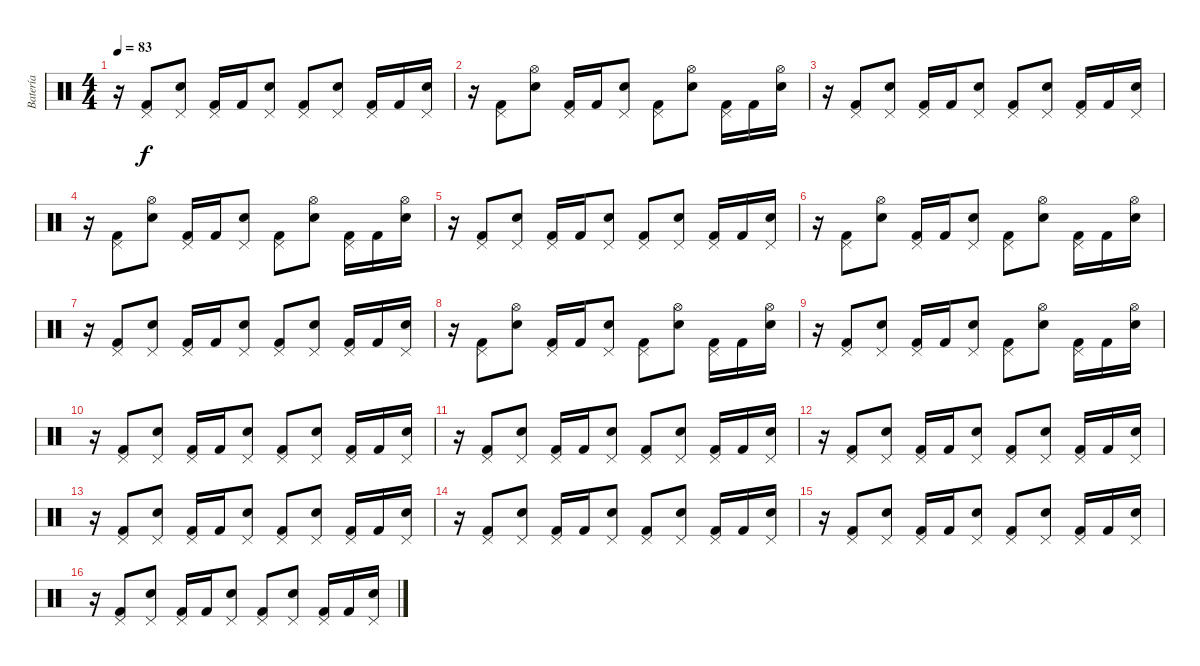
\track ("Batería" "Batería") {instrument percussion}
\staff {score}
\articulation defaults
\ts (4 4)
\tempo 83
\clef neutral
\ks c
r.16{dy f volume 13} ("Pedal Hi-Hat (hit)" "Kick (hit) 2").8 ("Electric Snare (hit)" "Pedal Hi-Hat (hit)").8 ("Pedal Hi-Hat (hit)" "Kick (hit) 2").16 "Kick (hit) 2".16 ("Electric Snare (hit)" "Pedal Hi-Hat (hit)").8 ("Pedal Hi-Hat (hit)" "Kick (hit) 2").8 ("Electric Snare (hit)" "Pedal Hi-Hat (hit)").8 ("Pedal Hi-Hat (hit)" "Kick (hit) 2").16 "Kick (hit) 2".16 ("Electric Snare (hit)" "Pedal Hi-Hat (hit)").16 |
r.16{volume 13} ("Pedal Hi-Hat (hit)" "Kick (hit) 2").8 ("Electric Snare (hit)" "Hi-Hat (open)").8 ("Pedal Hi-Hat (hit)" "Kick (hit) 2").16 "Kick (hit) 2".16 ("Electric Snare (hit)" "Pedal Hi-Hat (hit)").8 ("Pedal Hi-Hat (hit)" "Kick (hit) 2").8 ("Electric Snare (hit)" "Hi-Hat (open)").8 ("Pedal Hi-Hat (hit)" "Kick (hit) 2").16 "Kick (hit) 2".16 ("Electric Snare (hit)" "Hi-Hat (open)").16 |
r.16{volume 13} ("Pedal Hi-Hat (hit)" "Kick (hit) 2").8 ("Electric Snare (hit)" "Pedal Hi-Hat (hit)").8 ("Pedal Hi-Hat (hit)" "Kick (hit) 2").16 "Kick (hit) 2".16 ("Electric Snare (hit)" "Pedal Hi-Hat (hit)").8 ("Pedal Hi-Hat (hit)" "Kick (hit) 2").8 ("Electric Snare (hit)" "Pedal Hi-Hat (hit)").8 ("Pedal Hi-Hat (hit)" "Kick (hit) 2").16 "Kick (hit) 2".16 ("Electric Snare (hit)" "Pedal Hi-Hat (hit)").16 |
r.16{volume 13} ("Pedal Hi-Hat (hit)" "Kick (hit) 2").8 ("Electric Snare (hit)" "Hi-Hat (open)").8 ("Pedal Hi-Hat (hit)" "Kick (hit) 2").16 "Kick (hit) 2".16 ("Electric Snare (hit)" "Pedal Hi-Hat (hit)").8 ("Pedal Hi-Hat (hit)" "Kick (hit) 2").8 ("Electric Snare (hit)" "Hi-Hat (open)").8 ("Pedal Hi-Hat (hit)" "Kick (hit) 2").16 "Kick (hit) 2".16 ("Electric Snare (hit)" "Hi-Hat (open)").16 |
r.16{volume 13} ("Pedal Hi-Hat (hit)" "Kick (hit) 2").8 ("Electric Snare (hit)" "Pedal Hi-Hat (hit)").8 ("Pedal Hi-Hat (hit)" "Kick (hit) 2").16 "Kick (hit) 2".16 ("Electric Snare (hit)" "Pedal Hi-Hat (hit)").8 ("Pedal Hi-Hat (hit)" "Kick (hit) 2").8 ("Electric Snare (hit)" "Pedal Hi-Hat (hit)").8 ("Pedal Hi-Hat (hit)" "Kick (hit) 2").16 "Kick (hit) 2".16 ("Electric Snare (hit)" "Pedal Hi-Hat (hit)").16 |
r.16{volume 13} ("Pedal Hi-Hat (hit)" "Kick (hit) 2").8 ("Electric Snare (hit)" "Hi-Hat (open)").8 ("Pedal Hi-Hat (hit)" "Kick (hit) 2").16 "Kick (hit) 2".16 ("Electric Snare (hit)" "Pedal Hi-Hat (hit)").8 ("Pedal Hi-Hat (hit)" "Kick (hit) 2").8 ("Electric Snare (hit)" "Hi-Hat (open)").8 ("Pedal Hi-Hat (hit)" "Kick (hit) 2").16 "Kick (hit) 2".16 ("Electric Snare (hit)" "Hi-Hat (open)").16 |
r.16{volume 13} ("Pedal Hi-Hat (hit)" "Kick (hit) 2").8 ("Electric Snare (hit)" "Pedal Hi-Hat (hit)").8 ("Pedal Hi-Hat (hit)" "Kick (hit) 2").16 "Kick (hit) 2".16 ("Electric Snare (hit)" "Pedal Hi-Hat (hit)").8 ("Pedal Hi-Hat (hit)" "Kick (hit) 2").8 ("Electric Snare (hit)" "Pedal Hi-Hat (hit)").8 ("Pedal Hi-Hat (hit)" "Kick (hit) 2").16 "Kick (hit) 2".16 ("Electric Snare (hit)" "Pedal Hi-Hat (hit)").16 |
r.16{volume 13} ("Pedal Hi-Hat (hit)" "Kick (hit) 2").8 ("Electric Snare (hit)" "Hi-Hat (open)").8 ("Pedal Hi-Hat (hit)" "Kick (hit) 2").16 "Kick (hit) 2".16 ("Electric Snare (hit)" "Pedal Hi-Hat (hit)").8 ("Pedal Hi-Hat (hit)" "Kick (hit) 2").8 ("Electric Snare (hit)" "Hi-Hat (open)").8 ("Pedal Hi-Hat (hit)" "Kick (hit) 2").16 "Kick (hit) 2".16 ("Electric Snare (hit)" "Hi-Hat (open)").16 |
r.16{volume 13} ("Pedal Hi-Hat (hit)" "Kick (hit) 2").8 ("Electric Snare (hit)" "Pedal Hi-Hat (hit)").8 ("Pedal Hi-Hat (hit)" "Kick (hit) 2").16 "Kick (hit) 2".16 ("Electric Snare (hit)" "Pedal Hi-Hat (hit)").8 ("Pedal Hi-Hat (hit)" "Kick (hit) 2").8 ("Electric Snare (hit)" "Hi-Hat (open)").8 ("Pedal Hi-Hat (hit)" "Kick (hit) 2").16 "Kick (hit) 2".16 ("Electric Snare (hit)" "Hi-Hat (open)").16 |
r.16{volume 13} ("Pedal Hi-Hat (hit)" "Kick (hit) 2").8 ("Electric Snare (hit)" "Pedal Hi-Hat (hit)").8 ("Pedal Hi-Hat (hit)" "Kick (hit) 2").16 "Kick (hit) 2".16 ("Electric Snare (hit)" "Pedal Hi-Hat (hit)").8 ("Pedal Hi-Hat (hit)" "Kick (hit) 2").8 ("Electric Snare (hit)" "Pedal Hi-Hat (hit)").8 ("Pedal Hi-Hat (hit)" "Kick (hit) 2").16 "Kick (hit) 2".16 ("Electric Snare (hit)" "Pedal Hi-Hat (hit)").16 |
r.16{volume 13} ("Pedal Hi-Hat (hit)" "Kick (hit) 2").8 ("Electric Snare (hit)" "Pedal Hi-Hat (hit)").8 ("Pedal Hi-Hat (hit)" "Kick (hit) 2").16 "Kick (hit) 2".16 ("Electric Snare (hit)" "Pedal Hi-Hat (hit)").8 ("Pedal Hi-Hat (hit)" "Kick (hit) 2").8 ("Electric Snare (hit)" "Pedal Hi-Hat (hit)").8 ("Pedal Hi-Hat (hit)" "Kick (hit) 2").16 "Kick (hit) 2".16 ("Electric Snare (hit)" "Pedal Hi-Hat (hit)").16 |
r.16{volume 13} ("Pedal Hi-Hat (hit)" "Kick (hit) 2").8 ("Electric Snare (hit)" "Pedal Hi-Hat (hit)").8 ("Pedal Hi-Hat (hit)" "Kick (hit) 2").16 "Kick (hit) 2".16 ("Electric Snare (hit)" "Pedal Hi-Hat (hit)").8 ("Pedal Hi-Hat (hit)" "Kick (hit) 2").8 ("Electric Snare (hit)" "Pedal Hi-Hat (hit)").8 ("Pedal Hi-Hat (hit)" "Kick (hit) 2").16 "Kick (hit) 2".16 ("Electric Snare (hit)" "Pedal Hi-Hat (hit)").16 |
r.16{volume 13} ("Pedal Hi-Hat (hit)" "Kick (hit) 2").8 ("Electric Snare (hit)" "Pedal Hi-Hat (hit)").8 ("Pedal Hi-Hat (hit)" "Kick (hit) 2").16 "Kick (hit) 2".16 ("Electric Snare (hit)" "Pedal Hi-Hat (hit)").8 ("Pedal Hi-Hat (hit)" "Kick (hit) 2").8 ("Electric Snare (hit)" "Pedal Hi-Hat (hit)").8 ("Pedal Hi-Hat (hit)" "Kick (hit) 2").16 "Kick (hit) 2".16 ("Electric Snare (hit)" "Pedal Hi-Hat (hit)").16 |
r.16{volume 13} ("Pedal Hi-Hat (hit)" "Kick (hit) 2").8 ("Electric Snare (hit)" "Pedal Hi-Hat (hit)").8 ("Pedal Hi-Hat (hit)" "Kick (hit) 2").16 "Kick (hit) 2".16 ("Electric Snare (hit)" "Pedal Hi-Hat (hit)").8 ("Pedal Hi-Hat (hit)" "Kick (hit) 2").8 ("Electric Snare (hit)" "Pedal Hi-Hat (hit)").8 ("Pedal Hi-Hat (hit)" "Kick (hit) 2").16 "Kick (hit) 2".16 ("Electric Snare (hit)" "Pedal Hi-Hat (hit)").16 |
r.16{volume 13} ("Pedal Hi-Hat (hit)" "Kick (hit) 2").8 ("Electric Snare (hit)" "Pedal Hi-Hat (hit)").8 ("Pedal Hi-Hat (hit)" "Kick (hit) 2").16 "Kick (hit) 2".16 ("Electric Snare (hit)" "Pedal Hi-Hat (hit)").8 ("Pedal Hi-Hat (hit)" "Kick (hit) 2").8 ("Electric Snare (hit)" "Pedal Hi-Hat (hit)").8 ("Pedal Hi-Hat (hit)" "Kick (hit) 2").16 "Kick (hit) 2".16 ("Electric Snare (hit)" "Pedal Hi-Hat (hit)").16 |
r.16{volume 13} ("Pedal Hi-Hat (hit)" "Kick (hit) 2").8 ("Electric Snare (hit)" "Pedal Hi-Hat (hit)").8 ("Pedal Hi-Hat (hit)" "Kick (hit) 2").16 "Kick (hit) 2".16 ("Electric Snare (hit)" "Pedal Hi-Hat (hit)").8 ("Pedal Hi-Hat (hit)" "Kick (hit) 2").8 ("Electric Snare (hit)" "Pedal Hi-Hat (hit)").8 ("Pedal Hi-Hat (hit)" "Kick (hit) 2").16 "Kick (hit) 2".16 ("Electric Snare (hit)" "Pedal Hi-Hat (hit)").16
